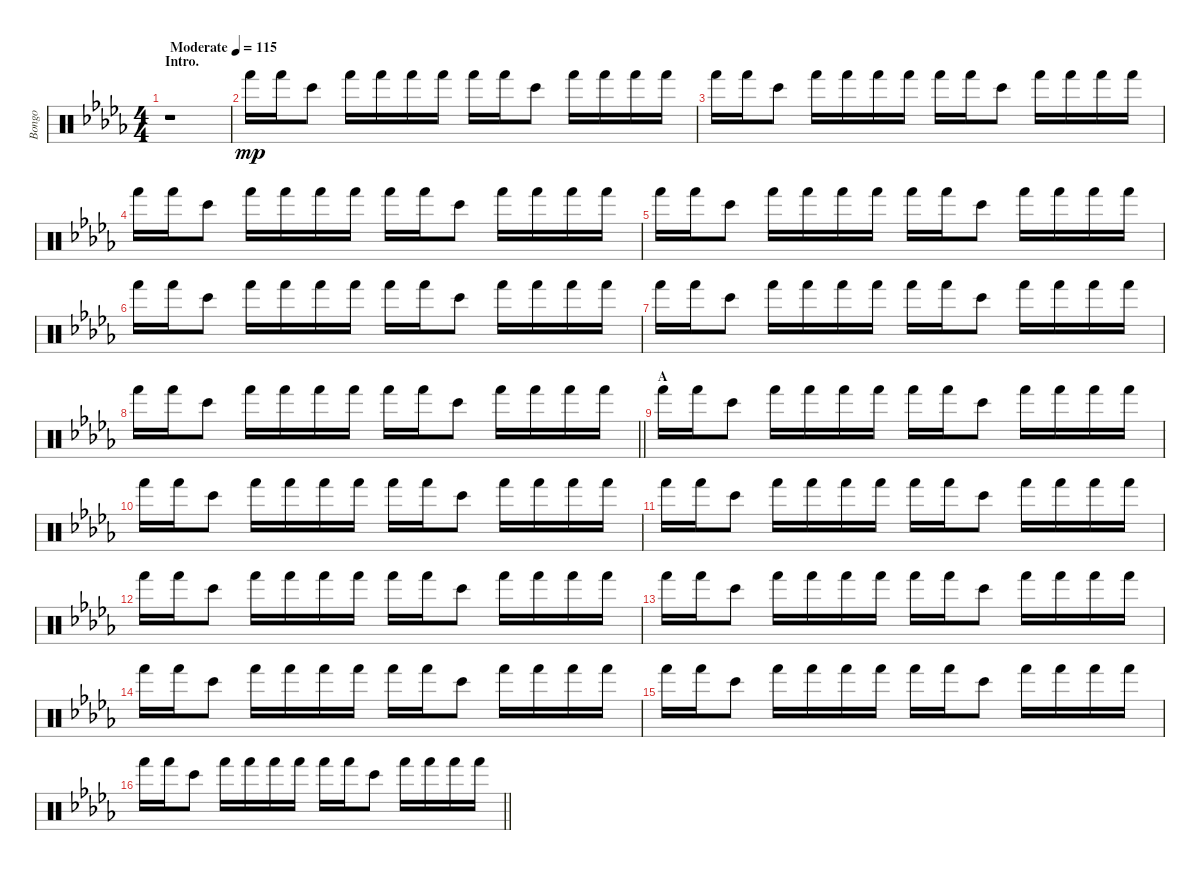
\track ("Bongo" "Bongo") {instrument percussion}
\staff {score}
\articulation defaults
\ts (4 4)
\section ("" "Intro.")
\tempo (115 "Moderate")
\clef neutral
\ks db
r.1{dy mp volume 0} |
"Hand (hit)".16{volume 14} "Hand (hit)".16 "Bongo High (hit)".8 "Hand (hit)".16 "Hand (hit)".16 "Hand (hit)".16 "Hand (hit)".16 "Hand (hit)".16 "Hand (hit)".16 "Bongo High (hit)".8 "Hand (hit)".16 "Hand (hit)".16 "Hand (hit)".16 "Hand (hit)".16 |
"Hand (hit)".16 "Hand (hit)".16 "Bongo High (hit)".8 "Hand (hit)".16 "Hand (hit)".16 "Hand (hit)".16 "Hand (hit)".16 "Hand (hit)".16 "Hand (hit)".16 "Bongo High (hit)".8 "Hand (hit)".16 "Hand (hit)".16 "Hand (hit)".16 "Hand (hit)".16 |
"Hand (hit)".16 "Hand (hit)".16 "Bongo High (hit)".8 "Hand (hit)".16 "Hand (hit)".16 "Hand (hit)".16 "Hand (hit)".16 "Hand (hit)".16 "Hand (hit)".16 "Bongo High (hit)".8 "Hand (hit)".16 "Hand (hit)".16 "Hand (hit)".16 "Hand (hit)".16 |
"Hand (hit)".16 "Hand (hit)".16 "Bongo High (hit)".8 "Hand (hit)".16 "Hand (hit)".16 "Hand (hit)".16 "Hand (hit)".16 "Hand (hit)".16 "Hand (hit)".16 "Bongo High (hit)".8 "Hand (hit)".16 "Hand (hit)".16 "Hand (hit)".16 "Hand (hit)".16 |
"Hand (hit)".16 "Hand (hit)".16 "Bongo High (hit)".8 "Hand (hit)".16 "Hand (hit)".16 "Hand (hit)".16 "Hand (hit)".16 "Hand (hit)".16 "Hand (hit)".16 "Bongo High (hit)".8 "Hand (hit)".16 "Hand (hit)".16 "Hand (hit)".16 "Hand (hit)".16 |
"Hand (hit)".16 "Hand (hit)".16 "Bongo High (hit)".8 "Hand (hit)".16 "Hand (hit)".16 "Hand (hit)".16 "Hand (hit)".16 "Hand (hit)".16 "Hand (hit)".16 "Bongo High (hit)".8 "Hand (hit)".16 "Hand (hit)".16 "Hand (hit)".16 "Hand (hit)".16 |
\barLineRight lightlight "Hand (hit)".16 "Hand (hit)".16 "Bongo High (hit)".8 "Hand (hit)".16 "Hand (hit)".16 "Hand (hit)".16 "Hand (hit)".16 "Hand (hit)".16 "Hand (hit)".16 "Bongo High (hit)".8 "Hand (hit)".16 "Hand (hit)".16 "Hand (hit)".16 "Hand (hit)".16
|
\section ("" "A")
"Hand (hit)".16 "Hand (hit)".16 "Bongo High (hit)".8 "Hand (hit)".16 "Hand (hit)".16 "Hand (hit)".16 "Hand (hit)".16 "Hand (hit)".16 "Hand (hit)".16 "Bongo High (hit)".8 "Hand (hit)".16 "Hand (hit)".16 "Hand (hit)".16 "Hand (hit)".16 |
"Hand (hit)".16 "Hand (hit)".16 "Bongo High (hit)".8 "Hand (hit)".16 "Hand (hit)".16 "Hand (hit)".16 "Hand (hit)".16 "Hand (hit)".16 "Hand (hit)".16 "Bongo High (hit)".8 "Hand (hit)".16 "Hand (hit)".16 "Hand (hit)".16 "Hand (hit)".16 |
"Hand (hit)".16 "Hand (hit)".16 "Bongo High (hit)".8 "Hand (hit)".16 "Hand (hit)".16 "Hand (hit)".16 "Hand (hit)".16 "Hand (hit)".16 "Hand (hit)".16 "Bongo High (hit)".8 "Hand (hit)".16 "Hand (hit)".16 "Hand (hit)".16 "Hand (hit)".16 |
"Hand (hit)".16 "Hand (hit)".16 "Bongo High (hit)".8 "Hand (hit)".16 "Hand (hit)".16 "Hand (hit)".16 "Hand (hit)".16 "Hand (hit)".16 "Hand (hit)".16 "Bongo High (hit)".8 "Hand (hit)".16 "Hand (hit)".16 "Hand (hit)".16 "Hand (hit)".16 |
"Hand (hit)".16 "Hand (hit)".16 "Bongo High (hit)".8 "Hand (hit)".16 "Hand (hit)".16 "Hand (hit)".16 "Hand (hit)".16 "Hand (hit)".16 "Hand (hit)".16 "Bongo High (hit)".8 "Hand (hit)".16 "Hand (hit)".16 "Hand (hit)".16 "Hand (hit)".16 |
"Hand (hit)".16 "Hand (hit)".16 "Bongo High (hit)".8 "Hand (hit)".16 "Hand (hit)".16 "Hand (hit)".16 "Hand (hit)".16 "Hand (hit)".16 "Hand (hit)".16 "Bongo High (hit)".8 "Hand (hit)".16 "Hand (hit)".16 "Hand (hit)".16 "Hand (hit)".16 |
"Hand (hit)".16 "Hand (hit)".16 "Bongo High (hit)".8 "Hand (hit)".16 "Hand (hit)".16 "Hand (hit)".16 "Hand (hit)".16 "Hand (hit)".16 "Hand (hit)".16 "Bongo High (hit)".8 "Hand (hit)".16 "Hand (hit)".16 "Hand (hit)".16 "Hand (hit)".16 |
\barLineRight lightlight "Hand (hit)".16 "Hand (hit)".16 "Bongo High (hit)".8 "Hand (hit)".16 "Hand (hit)".16 "Hand (hit)".16 "Hand (hit)".16 "Hand (hit)".16 "Hand (hit)".16 "Bongo High (hit)".8 "Hand (hit)".16 "Hand (hit)".16 "Hand (hit)".16 "Hand (hit)".16
